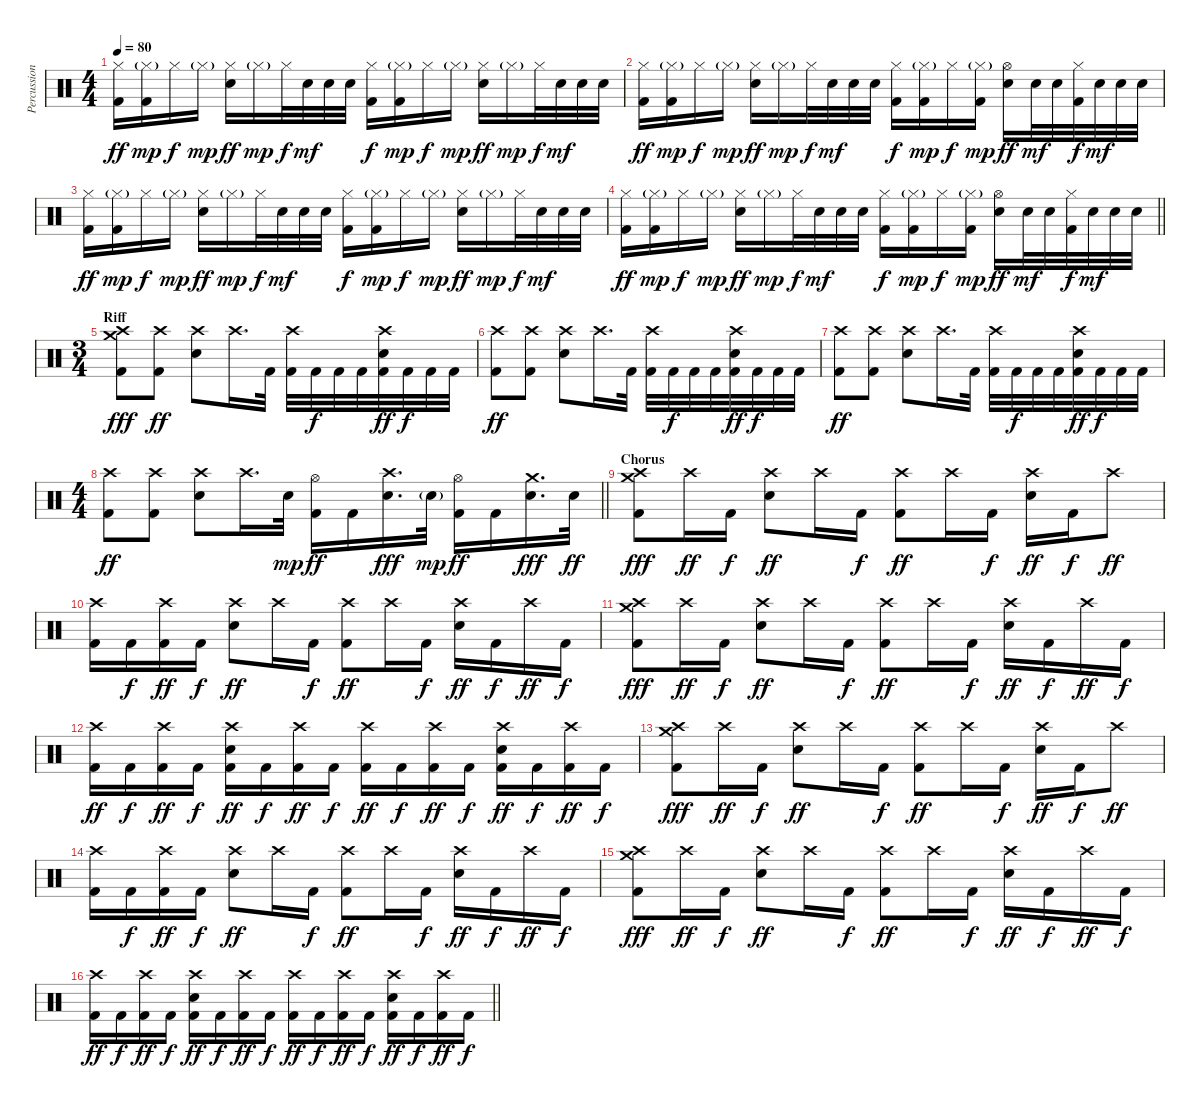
\track ("Percussion" "Percussion") {instrument percussion}
\staff {score}
\articulation defaults
\ts (4 4)
\tempo 80
\clef neutral
\ks c
("Hi-Hat (closed)" "Kick (hit) 2").16{dy ff} ("Hi-Hat (closed)"{g} "Kick (hit) 2").16{dy mp} "Hi-Hat (closed)".16{dy f} "Hi-Hat (closed)"{g}.16{dy mp} ("Hi-Hat (closed)" "Electric Snare (hit)").16{dy ff} "Hi-Hat (closed)"{g}.16{dy mp} "Hi-Hat (closed)".32{dy f} "Electric Snare (hit)".32{dy mf} "Electric Snare (hit)".32 "Electric Snare (hit)".32 ("Hi-Hat (closed)" "Kick (hit) 2").16{dy f} ("Hi-Hat (closed)"{g} "Kick (hit) 2").16{dy mp} "Hi-Hat (closed)".16{dy f} "Hi-Hat (closed)"{g}.16{dy mp} ("Hi-Hat (closed)" "Electric Snare (hit)").16{dy ff} "Hi-Hat (closed)"{g}.16{dy mp} "Hi-Hat (closed)".32{dy f} "Electric Snare (hit)".32{dy mf} "Electric Snare (hit)".32 "Electric Snare (hit)".32 |
("Hi-Hat (closed)" "Kick (hit) 2").16{dy ff} ("Hi-Hat (closed)"{g} "Kick (hit) 2").16{dy mp} "Hi-Hat (closed)".16{dy f} "Hi-Hat (closed)"{g}.16{dy mp} ("Hi-Hat (closed)" "Electric Snare (hit)").16{dy ff} "Hi-Hat (closed)"{g}.16{dy mp} "Hi-Hat (closed)".32{dy f} "Electric Snare (hit)".32{dy mf} "Electric Snare (hit)".32 "Electric Snare (hit)".32 ("Hi-Hat (closed)" "Kick (hit) 2").16{dy f} ("Hi-Hat (closed)"{g} "Kick (hit) 2").16{dy mp} "Hi-Hat (closed)".16{dy f} ("Hi-Hat (closed)"{g} "Kick (hit) 2").16{dy mp} ("Hi-Hat (open)" "Electric Snare (hit)").16{dy ff} "Electric Snare (hit)".32{dy mf} "Electric Snare (hit)".32 ("Hi-Hat (closed)" "Kick (hit) 2").32{dy f} "Electric Snare (hit)".32{dy mf} "Electric Snare (hit)".32 "Electric Snare (hit)".32 |
("Hi-Hat (closed)" "Kick (hit) 2").16{dy ff} ("Hi-Hat (closed)"{g} "Kick (hit) 2").16{dy mp} "Hi-Hat (closed)".16{dy f} "Hi-Hat (closed)"{g}.16{dy mp} ("Hi-Hat (closed)" "Electric Snare (hit)").16{dy ff} "Hi-Hat (closed)"{g}.16{dy mp} "Hi-Hat (closed)".32{dy f} "Electric Snare (hit)".32{dy mf} "Electric Snare (hit)".32 "Electric Snare (hit)".32 ("Hi-Hat (closed)" "Kick (hit) 2").16{dy f} ("Hi-Hat (closed)"{g} "Kick (hit) 2").16{dy mp} "Hi-Hat (closed)".16{dy f} "Hi-Hat (closed)"{g}.16{dy mp} ("Hi-Hat (closed)" "Electric Snare (hit)").16{dy ff} "Hi-Hat (closed)"{g}.16{dy mp} "Hi-Hat (closed)".32{dy f} "Electric Snare (hit)".32{dy mf} "Electric Snare (hit)".32 "Electric Snare (hit)".32 |
\barLineRight lightlight
("Hi-Hat (closed)" "Kick (hit) 2").16{dy ff} ("Hi-Hat (closed)"{g} "Kick (hit) 2").16{dy mp} "Hi-Hat (closed)".16{dy f} "Hi-Hat (closed)"{g}.16{dy mp} ("Hi-Hat (closed)" "Electric Snare (hit)").16{dy ff} "Hi-Hat (closed)"{g}.16{dy mp} "Hi-Hat (closed)".32{dy f} "Electric Snare (hit)".32{dy mf} "Electric Snare (hit)".32 "Electric Snare (hit)".32 ("Hi-Hat (closed)" "Kick (hit) 2").16{dy f} ("Hi-Hat (closed)"{g} "Kick (hit) 2").16{dy mp} "Hi-Hat (closed)".16{dy f} ("Hi-Hat (closed)"{g} "Kick (hit) 2").16{dy mp} ("Hi-Hat (open)" "Electric Snare (hit)").16{dy ff} "Electric Snare (hit)".32{dy mf} "Electric Snare (hit)".32 ("Hi-Hat (closed)" "Kick (hit) 2").32{dy f} "Electric Snare (hit)".32{dy mf} "Electric Snare (hit)".32 "Electric Snare (hit)".32 |
\ts (3 4)
\section ("" "Riff")
("Crash high (hit)" "Crash medium (hit)" "Kick (hit) 2").8{dy fff} ("Crash high (hit)" "Kick (hit) 2").8{dy ff} ("Crash high (hit)" "Electric Snare (hit)").8 "Crash high (hit)".16{d} "Kick (hit) 2".32 ("Crash high (hit)" "Kick (hit) 2").32 "Kick (hit) 2".32{dy f} "Kick (hit) 2".32 "Kick (hit) 2".32 ("Crash high (hit)" "Electric Snare (hit)" "Kick (hit) 2").32{dy ff} "Kick (hit) 2".32{dy f} "Kick (hit) 2".32 "Kick (hit) 2".32 |
("Crash high (hit)" "Kick (hit) 2").8{dy ff} ("Crash high (hit)" "Kick (hit) 2").8 ("Crash high (hit)" "Electric Snare (hit)").8 "Crash high (hit)".16{d} "Kick (hit) 2".32 ("Crash high (hit)" "Kick (hit) 2").32 "Kick (hit) 2".32{dy f} "Kick (hit) 2".32 "Kick (hit) 2".32 ("Crash high (hit)" "Electric Snare (hit)" "Kick (hit) 2").32{dy ff} "Kick (hit) 2".32{dy f} "Kick (hit) 2".32 "Kick (hit) 2".32 |
("Crash high (hit)" "Kick (hit) 2").8{dy ff} ("Crash high (hit)" "Kick (hit) 2").8 ("Crash high (hit)" "Electric Snare (hit)").8 "Crash high (hit)".16{d} "Kick (hit) 2".32 ("Crash high (hit)" "Kick (hit) 2").32 "Kick (hit) 2".32{dy f} "Kick (hit) 2".32 "Kick (hit) 2".32 ("Crash high (hit)" "Electric Snare (hit)" "Kick (hit) 2").32{dy ff} "Kick (hit) 2".32{dy f} "Kick (hit) 2".32 "Kick (hit) 2".32 |
\ts (4 4)
\barLineRight lightlight
("Crash high (hit)" "Kick (hit) 2").8{dy ff} ("Crash high (hit)" "Kick (hit) 2").8 ("Crash high (hit)" "Electric Snare (hit)").8 "Crash high (hit)".16{d} "Electric Snare (hit)".32{dy mp} ("Hi-Hat (open)" "Kick (hit) 2").16{dy ff} "Kick (hit) 2".16 ("Crash high (hit)" "Electric Snare (hit)").16{d dy fff} "Electric Snare (hit)"{g}.32{dy mp} ("Hi-Hat (open)" "Kick (hit) 2").16{dy ff} "Kick (hit) 2".16 ("Crash medium (hit)" "Electric Snare (hit)").16{d dy fff} "Electric Snare (hit)".32{dy ff} |
\section ("" "Chorus")
("Crash medium (hit)" "Crash high (hit)" "Kick (hit) 2").8{dy fff} "Crash high (hit)".16{dy ff} "Kick (hit) 2".16{dy f} ("Crash high (hit)" "Electric Snare (hit)").8{dy ff} "Crash high (hit)".16 "Kick (hit) 2".16{dy f} ("Crash high (hit)" "Kick (hit) 2").8{dy ff} "Crash high (hit)".16 "Kick (hit) 2".16{dy f} ("Crash high (hit)" "Electric Snare (hit)").16{dy ff} "Kick (hit) 2".16{dy f} "Crash high (hit)".8{dy ff} |
("Crash high (hit)" "Kick (hit) 2").16 "Kick (hit) 2".16{dy f} ("Crash high (hit)" "Kick (hit) 2").16{dy ff} "Kick (hit) 2".16{dy f} ("Crash high (hit)" "Electric Snare (hit)").8{dy ff} "Crash high (hit)".16 "Kick (hit) 2".16{dy f} ("Crash high (hit)" "Kick (hit) 2").8{dy ff} "Crash high (hit)".16 "Kick (hit) 2".16{dy f} ("Crash high (hit)" "Electric Snare (hit)").16{dy ff} "Kick (hit) 2".16{dy f} "Crash high (hit)".16{dy ff} "Kick (hit) 2".16{dy f} |
("Crash medium (hit)" "Crash high (hit)" "Kick (hit) 2").8{dy fff} "Crash high (hit)".16{dy ff} "Kick (hit) 2".16{dy f} ("Crash high (hit)" "Electric Snare (hit)").8{dy ff} "Crash high (hit)".16 "Kick (hit) 2".16{dy f} ("Crash high (hit)" "Kick (hit) 2").8{dy ff} "Crash high (hit)".16 "Kick (hit) 2".16{dy f} ("Crash high (hit)" "Electric Snare (hit)").16{dy ff} "Kick (hit) 2".16{dy f} "Crash high (hit)".16{dy ff} "Kick (hit) 2".16{dy f} |
("Crash high (hit)" "Kick (hit) 2").16{dy ff} "Kick (hit) 2".16{dy f} ("Crash high (hit)" "Kick (hit) 2").16{dy ff} "Kick (hit) 2".16{dy f} ("Crash high (hit)" "Electric Snare (hit)" "Kick (hit) 2").16{dy ff} "Kick (hit) 2".16{dy f} ("Crash high (hit)" "Kick (hit) 2").16{dy ff} "Kick (hit) 2".16{dy f} ("Crash high (hit)" "Kick (hit) 2").16{dy ff} "Kick (hit) 2".16{dy f} ("Crash high (hit)" "Kick (hit) 2").16{dy ff} "Kick (hit) 2".16{dy f} ("Crash high (hit)" "Electric Snare (hit)" "Kick (hit) 2").16{dy ff} "Kick (hit) 2".16{dy f} ("Crash high (hit)" "Kick (hit) 2").16{dy ff} "Kick (hit) 2".16{dy f} |
("Crash medium (hit)" "Crash high (hit)" "Kick (hit) 2").8{dy fff} "Crash high (hit)".16{dy ff} "Kick (hit) 2".16{dy f} ("Crash high (hit)" "Electric Snare (hit)").8{dy ff} "Crash high (hit)".16 "Kick (hit) 2".16{dy f} ("Crash high (hit)" "Kick (hit) 2").8{dy ff} "Crash high (hit)".16 "Kick (hit) 2".16{dy f} ("Crash high (hit)" "Electric Snare (hit)").16{dy ff} "Kick (hit) 2".16{dy f} "Crash high (hit)".8{dy ff} |
("Crash high (hit)" "Kick (hit) 2").16 "Kick (hit) 2".16{dy f} ("Crash high (hit)" "Kick (hit) 2").16{dy ff} "Kick (hit) 2".16{dy f} ("Crash high (hit)" "Electric Snare (hit)").8{dy ff} "Crash high (hit)".16 "Kick (hit) 2".16{dy f} ("Crash high (hit)" "Kick (hit) 2").8{dy ff} "Crash high (hit)".16 "Kick (hit) 2".16{dy f} ("Crash high (hit)" "Electric Snare (hit)").16{dy ff} "Kick (hit) 2".16{dy f} "Crash high (hit)".16{dy ff} "Kick (hit) 2".16{dy f} |
("Crash medium (hit)" "Crash high (hit)" "Kick (hit) 2").8{dy fff} "Crash high (hit)".16{dy ff} "Kick (hit) 2".16{dy f} ("Crash high (hit)" "Electric Snare (hit)").8{dy ff} "Crash high (hit)".16 "Kick (hit) 2".16{dy f} ("Crash high (hit)" "Kick (hit) 2").8{dy ff} "Crash high (hit)".16 "Kick (hit) 2".16{dy f} ("Crash high (hit)" "Electric Snare (hit)").16{dy ff} "Kick (hit) 2".16{dy f} "Crash high (hit)".16{dy ff} "Kick (hit) 2".16{dy f} |
\barLineRight lightlight
("Crash high (hit)" "Kick (hit) 2").16{dy ff} "Kick (hit) 2".16{dy f} ("Crash high (hit)" "Kick (hit) 2").16{dy ff} "Kick (hit) 2".16{dy f} ("Crash high (hit)" "Electric Snare (hit)" "Kick (hit) 2").16{dy ff} "Kick (hit) 2".16{dy f} ("Crash high (hit)" "Kick (hit) 2").16{dy ff} "Kick (hit) 2".16{dy f} ("Crash high (hit)" "Kick (hit) 2").16{dy ff} "Kick (hit) 2".16{dy f} ("Crash high (hit)" "Kick (hit) 2").16{dy ff} "Kick (hit) 2".16{dy f} ("Crash high (hit)" "Electric Snare (hit)" "Kick (hit) 2").16{dy ff} "Kick (hit) 2".16{dy f} ("Crash high (hit)" "Kick (hit) 2").16{dy ff} "Kick (hit) 2".16{dy f}
